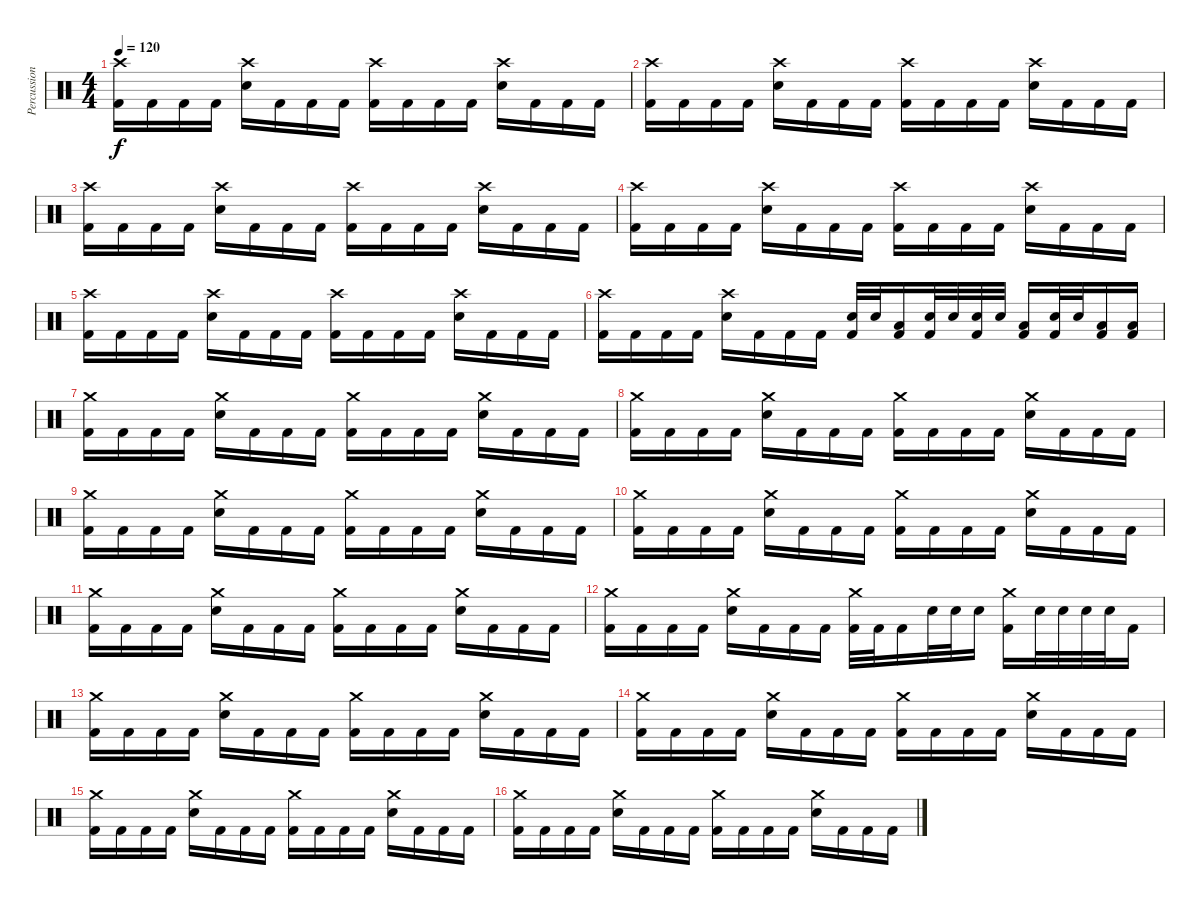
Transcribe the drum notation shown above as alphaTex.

\track ("Percussion" "Percussion") {instrument percussion}
\staff {score}
\articulation defaults
\ts (4 4)
\tempo 120
\clef neutral
\ks c
("Crash high (hit)" "Kick (hit) 2").16{dy f} "Kick (hit) 2".16 "Kick (hit) 2".16 "Kick (hit) 2".16 ("Crash high (hit)" "Electric Snare (hit)").16 "Kick (hit) 2".16 "Kick (hit) 2".16 "Kick (hit) 2".16 ("Crash high (hit)" "Kick (hit) 2").16 "Kick (hit) 2".16 "Kick (hit) 2".16 "Kick (hit) 2".16 ("Crash high (hit)" "Electric Snare (hit)").16 "Kick (hit) 2".16 "Kick (hit) 2".16 "Kick (hit) 2".16 |
("Crash high (hit)" "Kick (hit) 2").16 "Kick (hit) 2".16 "Kick (hit) 2".16 "Kick (hit) 2".16 ("Crash high (hit)" "Electric Snare (hit)").16 "Kick (hit) 2".16 "Kick (hit) 2".16 "Kick (hit) 2".16 ("Crash high (hit)" "Kick (hit) 2").16 "Kick (hit) 2".16 "Kick (hit) 2".16 "Kick (hit) 2".16 ("Crash high (hit)" "Electric Snare (hit)").16 "Kick (hit) 2".16 "Kick (hit) 2".16 "Kick (hit) 2".16 |
("Crash high (hit)" "Kick (hit) 2").16 "Kick (hit) 2".16 "Kick (hit) 2".16 "Kick (hit) 2".16 ("Crash high (hit)" "Electric Snare (hit)").16 "Kick (hit) 2".16 "Kick (hit) 2".16 "Kick (hit) 2".16 ("Crash high (hit)" "Kick (hit) 2").16 "Kick (hit) 2".16 "Kick (hit) 2".16 "Kick (hit) 2".16 ("Crash high (hit)" "Electric Snare (hit)").16 "Kick (hit) 2".16 "Kick (hit) 2".16 "Kick (hit) 2".16 |
("Crash high (hit)" "Kick (hit) 2").16 "Kick (hit) 2".16 "Kick (hit) 2".16 "Kick (hit) 2".16 ("Crash high (hit)" "Electric Snare (hit)").16 "Kick (hit) 2".16 "Kick (hit) 2".16 "Kick (hit) 2".16 ("Crash high (hit)" "Kick (hit) 2").16 "Kick (hit) 2".16 "Kick (hit) 2".16 "Kick (hit) 2".16 ("Crash high (hit)" "Electric Snare (hit)").16 "Kick (hit) 2".16 "Kick (hit) 2".16 "Kick (hit) 2".16 |
("Crash high (hit)" "Kick (hit) 2").16 "Kick (hit) 2".16 "Kick (hit) 2".16 "Kick (hit) 2".16 ("Crash high (hit)" "Electric Snare (hit)").16 "Kick (hit) 2".16 "Kick (hit) 2".16 "Kick (hit) 2".16 ("Crash high (hit)" "Kick (hit) 2").16 "Kick (hit) 2".16 "Kick (hit) 2".16 "Kick (hit) 2".16 ("Crash high (hit)" "Electric Snare (hit)").16 "Kick (hit) 2".16 "Kick (hit) 2".16 "Kick (hit) 2".16 |
("Crash high (hit)" "Kick (hit) 2").16 "Kick (hit) 2".16 "Kick (hit) 2".16 "Kick (hit) 2".16 ("Crash high (hit)" "Electric Snare (hit)").16 "Kick (hit) 2".16 "Kick (hit) 2".16 "Kick (hit) 2".16 ("Electric Snare (hit)" "Kick (hit) 2").32 "Electric Snare (hit)".32 ("Low Tom (hit)" "Kick (hit) 2").16 ("Electric Snare (hit)" "Kick (hit) 2").32 "Electric Snare (hit)".32 ("Electric Snare (hit)" "Kick (hit) 2").32 "Electric Snare (hit)".32 ("Low Tom (hit)" "Kick (hit) 2").16 ("Electric Snare (hit)" "Kick (hit) 2").32 "Electric Snare (hit)".32 ("Low Tom (hit)" "Kick (hit) 2").16 ("Low Tom (hit)" "Kick (hit) 2").16 |
("Crash medium (hit)" "Kick (hit) 2").16 "Kick (hit) 2".16 "Kick (hit) 2".16 "Kick (hit) 2".16 ("Crash medium (hit)" "Electric Snare (hit)").16 "Kick (hit) 2".16 "Kick (hit) 2".16 "Kick (hit) 2".16 ("Crash medium (hit)" "Kick (hit) 2").16 "Kick (hit) 2".16 "Kick (hit) 2".16 "Kick (hit) 2".16 ("Crash medium (hit)" "Electric Snare (hit)").16 "Kick (hit) 2".16 "Kick (hit) 2".16 "Kick (hit) 2".16 |
("Crash medium (hit)" "Kick (hit) 2").16 "Kick (hit) 2".16 "Kick (hit) 2".16 "Kick (hit) 2".16 ("Crash medium (hit)" "Electric Snare (hit)").16 "Kick (hit) 2".16 "Kick (hit) 2".16 "Kick (hit) 2".16 ("Crash medium (hit)" "Kick (hit) 2").16 "Kick (hit) 2".16 "Kick (hit) 2".16 "Kick (hit) 2".16 ("Crash medium (hit)" "Electric Snare (hit)").16 "Kick (hit) 2".16 "Kick (hit) 2".16 "Kick (hit) 2".16 |
("Crash medium (hit)" "Kick (hit) 2").16 "Kick (hit) 2".16 "Kick (hit) 2".16 "Kick (hit) 2".16 ("Crash medium (hit)" "Electric Snare (hit)").16 "Kick (hit) 2".16 "Kick (hit) 2".16 "Kick (hit) 2".16 ("Crash medium (hit)" "Kick (hit) 2").16 "Kick (hit) 2".16 "Kick (hit) 2".16 "Kick (hit) 2".16 ("Crash medium (hit)" "Electric Snare (hit)").16 "Kick (hit) 2".16 "Kick (hit) 2".16 "Kick (hit) 2".16 |
("Crash medium (hit)" "Kick (hit) 2").16 "Kick (hit) 2".16 "Kick (hit) 2".16 "Kick (hit) 2".16 ("Crash medium (hit)" "Electric Snare (hit)").16 "Kick (hit) 2".16 "Kick (hit) 2".16 "Kick (hit) 2".16 ("Crash medium (hit)" "Kick (hit) 2").16 "Kick (hit) 2".16 "Kick (hit) 2".16 "Kick (hit) 2".16 ("Crash medium (hit)" "Electric Snare (hit)").16 "Kick (hit) 2".16 "Kick (hit) 2".16 "Kick (hit) 2".16 |
("Crash medium (hit)" "Kick (hit) 2").16 "Kick (hit) 2".16 "Kick (hit) 2".16 "Kick (hit) 2".16 ("Crash medium (hit)" "Electric Snare (hit)").16 "Kick (hit) 2".16 "Kick (hit) 2".16 "Kick (hit) 2".16 ("Crash medium (hit)" "Kick (hit) 2").16 "Kick (hit) 2".16 "Kick (hit) 2".16 "Kick (hit) 2".16 ("Crash medium (hit)" "Electric Snare (hit)").16 "Kick (hit) 2".16 "Kick (hit) 2".16 "Kick (hit) 2".16 |
("Crash medium (hit)" "Kick (hit) 2").16 "Kick (hit) 2".16 "Kick (hit) 2".16 "Kick (hit) 2".16 ("Crash medium (hit)" "Electric Snare (hit)").16 "Kick (hit) 2".16 "Kick (hit) 2".16 "Kick (hit) 2".16 ("Crash medium (hit)" "Kick (hit) 2").32 "Kick (hit) 2".32 "Kick (hit) 2".16 "Electric Snare (hit)".32 "Electric Snare (hit)".32 "Electric Snare (hit)".16 ("Crash medium (hit)" "Kick (hit) 2").16 "Electric Snare (hit)".32 "Electric Snare (hit)".32 "Electric Snare (hit)".32 "Electric Snare (hit)".32 "Kick (hit) 2".16 |
("Crash medium (hit)" "Kick (hit) 2").16 "Kick (hit) 2".16 "Kick (hit) 2".16 "Kick (hit) 2".16 ("Crash medium (hit)" "Electric Snare (hit)").16 "Kick (hit) 2".16 "Kick (hit) 2".16 "Kick (hit) 2".16 ("Crash medium (hit)" "Kick (hit) 2").16 "Kick (hit) 2".16 "Kick (hit) 2".16 "Kick (hit) 2".16 ("Crash medium (hit)" "Electric Snare (hit)").16 "Kick (hit) 2".16 "Kick (hit) 2".16 "Kick (hit) 2".16 |
("Crash medium (hit)" "Kick (hit) 2").16 "Kick (hit) 2".16 "Kick (hit) 2".16 "Kick (hit) 2".16 ("Crash medium (hit)" "Electric Snare (hit)").16 "Kick (hit) 2".16 "Kick (hit) 2".16 "Kick (hit) 2".16 ("Crash medium (hit)" "Kick (hit) 2").16 "Kick (hit) 2".16 "Kick (hit) 2".16 "Kick (hit) 2".16 ("Crash medium (hit)" "Electric Snare (hit)").16 "Kick (hit) 2".16 "Kick (hit) 2".16 "Kick (hit) 2".16 |
("Crash medium (hit)" "Kick (hit) 2").16 "Kick (hit) 2".16 "Kick (hit) 2".16 "Kick (hit) 2".16 ("Crash medium (hit)" "Electric Snare (hit)").16 "Kick (hit) 2".16 "Kick (hit) 2".16 "Kick (hit) 2".16 ("Crash medium (hit)" "Kick (hit) 2").16 "Kick (hit) 2".16 "Kick (hit) 2".16 "Kick (hit) 2".16 ("Crash medium (hit)" "Electric Snare (hit)").16 "Kick (hit) 2".16 "Kick (hit) 2".16 "Kick (hit) 2".16 |
("Crash medium (hit)" "Kick (hit) 2").16 "Kick (hit) 2".16 "Kick (hit) 2".16 "Kick (hit) 2".16 ("Crash medium (hit)" "Electric Snare (hit)").16 "Kick (hit) 2".16 "Kick (hit) 2".16 "Kick (hit) 2".16 ("Crash medium (hit)" "Kick (hit) 2").16 "Kick (hit) 2".16 "Kick (hit) 2".16 "Kick (hit) 2".16 ("Crash medium (hit)" "Electric Snare (hit)").16 "Kick (hit) 2".16 "Kick (hit) 2".16 "Kick (hit) 2".16
